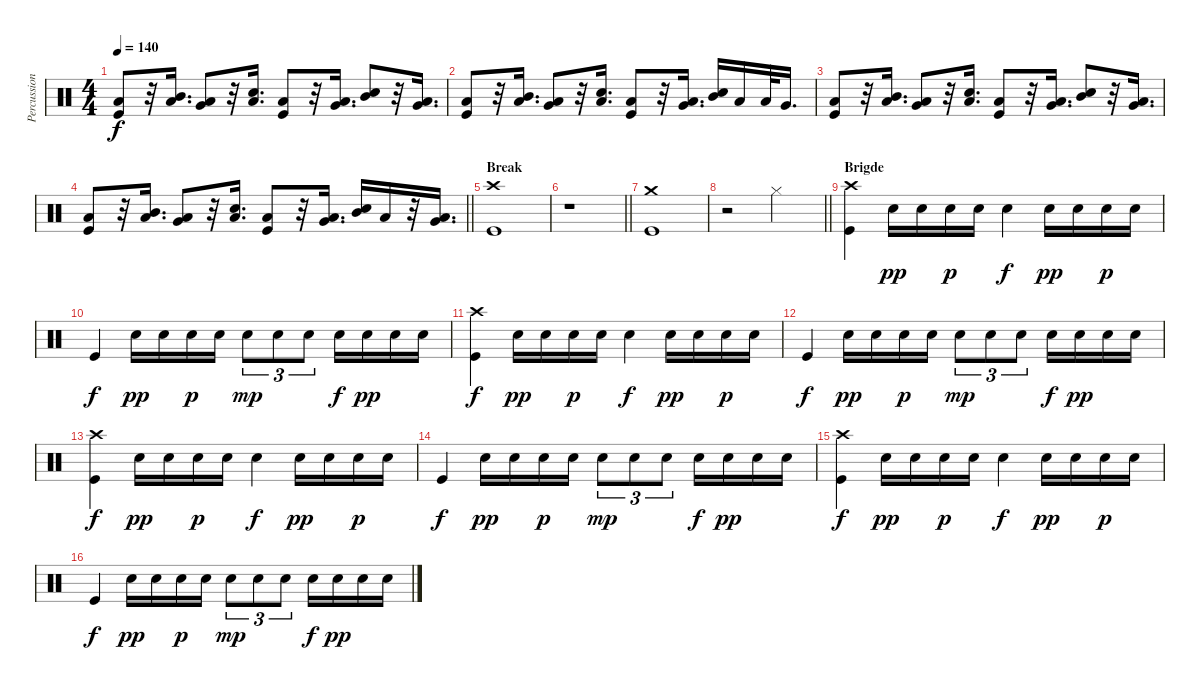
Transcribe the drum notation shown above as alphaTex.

\track ("Percussion" "Percussion") {instrument percussion}
\staff {score}
\articulation defaults
\ts (4 4)
\tempo 140
\clef neutral
\ks c
("Low Tom (hit)" "Kick (hit)").8{dy f} r.32 ("Mid Tom (hit)" "Low Tom (hit)").16{d} ("Low Tom (hit)" "Very Low Tom (hit)").8 r.32 ("Low Floor Tom (hit)" "Electric Snare (hit)").16{d} ("Low Floor Tom (hit)" "Kick (hit)").8 r.32 ("Low Tom (hit)" "Very Low Tom (hit)").16{d} ("Mid Tom (hit)" "Electric Snare (hit)").8 r.32 ("Low Tom (hit)" "Very Low Tom (hit)").16{d} |
("Low Tom (hit)" "Kick (hit)").8 r.32 ("Mid Tom (hit)" "Low Tom (hit)").16{d} ("Low Tom (hit)" "Very Low Tom (hit)").8 r.32 ("Low Floor Tom (hit)" "Electric Snare (hit)").16{d} ("Low Floor Tom (hit)" "Kick (hit)").8 r.32 ("Low Tom (hit)" "Very Low Tom (hit)").16{d} ("Mid Tom (hit)" "Electric Snare (hit)").16 "Low Tom (hit)".16 "Low Tom (hit)".32 "Very Low Tom (hit)".16{d} |
("Low Tom (hit)" "Kick (hit)").8 r.32 ("Mid Tom (hit)" "Low Tom (hit)").16{d} ("Low Tom (hit)" "Very Low Tom (hit)").8 r.32 ("Low Floor Tom (hit)" "Electric Snare (hit)").16{d} ("Low Floor Tom (hit)" "Kick (hit)").8 r.32 ("Low Tom (hit)" "Very Low Tom (hit)").16{d} ("Mid Tom (hit)" "Electric Snare (hit)").8 r.32 ("Low Tom (hit)" "Very Low Tom (hit)").16{d} |
\barLineRight lightlight
("Low Tom (hit)" "Kick (hit)").8 r.32 ("Mid Tom (hit)" "Low Tom (hit)").16{d} ("Low Tom (hit)" "Very Low Tom (hit)").8 r.32 ("Low Floor Tom (hit)" "Electric Snare (hit)").16{d} ("Low Floor Tom (hit)" "Kick (hit)").8 r.32 ("Low Tom (hit)" "Very Low Tom (hit)").16{d} ("Mid Tom (hit)" "Electric Snare (hit)").16 "Low Tom (hit)".16 r.32 ("Low Tom (hit)" "Very Low Tom (hit)").16{d} |
\section ("" "Break")
("Crash high (hit)" "Kick (hit)").1 |
\barLineRight lightlight
r.1 |
("Crash medium (hit)" "Kick (hit)").1 |
\barLineRight lightlight
r.2 "Hi-Hat (closed)".2 |
\section ("" "Brigde")
("Crash high (hit)" "Kick (hit)").4 "Electric Snare (hit)".16{dy pp} "Electric Snare (hit)".16 "Electric Snare (hit)".16{dy p} "Electric Snare (hit)".16 "Electric Snare (hit)".4{dy f} "Electric Snare (hit)".16{dy pp} "Electric Snare (hit)".16 "Electric Snare (hit)".16{dy p} "Electric Snare (hit)".16 |
"Kick (hit)".4{dy f} "Electric Snare (hit)".16{dy pp} "Electric Snare (hit)".16 "Electric Snare (hit)".16{dy p} "Electric Snare (hit)".16 "Electric Snare (hit)".8{tu (3 2) dy mp} "Electric Snare (hit)".8{tu (3 2)} "Electric Snare (hit)".8{tu (3 2)} "Electric Snare (hit)".16{dy f} "Electric Snare (hit)".16{dy pp} "Electric Snare (hit)".16 "Electric Snare (hit)".16 |
("Crash high (hit)" "Kick (hit)").4{dy f} "Electric Snare (hit)".16{dy pp} "Electric Snare (hit)".16 "Electric Snare (hit)".16{dy p} "Electric Snare (hit)".16 "Electric Snare (hit)".4{dy f} "Electric Snare (hit)".16{dy pp} "Electric Snare (hit)".16 "Electric Snare (hit)".16{dy p} "Electric Snare (hit)".16 |
"Kick (hit)".4{dy f} "Electric Snare (hit)".16{dy pp} "Electric Snare (hit)".16 "Electric Snare (hit)".16{dy p} "Electric Snare (hit)".16 "Electric Snare (hit)".8{tu (3 2) dy mp} "Electric Snare (hit)".8{tu (3 2)} "Electric Snare (hit)".8{tu (3 2)} "Electric Snare (hit)".16{dy f} "Electric Snare (hit)".16{dy pp} "Electric Snare (hit)".16 "Electric Snare (hit)".16 |
("Crash high (hit)" "Kick (hit)").4{dy f} "Electric Snare (hit)".16{dy pp} "Electric Snare (hit)".16 "Electric Snare (hit)".16{dy p} "Electric Snare (hit)".16 "Electric Snare (hit)".4{dy f} "Electric Snare (hit)".16{dy pp} "Electric Snare (hit)".16 "Electric Snare (hit)".16{dy p} "Electric Snare (hit)".16 |
"Kick (hit)".4{dy f} "Electric Snare (hit)".16{dy pp} "Electric Snare (hit)".16 "Electric Snare (hit)".16{dy p} "Electric Snare (hit)".16 "Electric Snare (hit)".8{tu (3 2) dy mp} "Electric Snare (hit)".8{tu (3 2)} "Electric Snare (hit)".8{tu (3 2)} "Electric Snare (hit)".16{dy f} "Electric Snare (hit)".16{dy pp} "Electric Snare (hit)".16 "Electric Snare (hit)".16 |
("Crash high (hit)" "Kick (hit)").4{dy f} "Electric Snare (hit)".16{dy pp} "Electric Snare (hit)".16 "Electric Snare (hit)".16{dy p} "Electric Snare (hit)".16 "Electric Snare (hit)".4{dy f} "Electric Snare (hit)".16{dy pp} "Electric Snare (hit)".16 "Electric Snare (hit)".16{dy p} "Electric Snare (hit)".16 |
"Kick (hit)".4{dy f} "Electric Snare (hit)".16{dy pp} "Electric Snare (hit)".16 "Electric Snare (hit)".16{dy p} "Electric Snare (hit)".16 "Electric Snare (hit)".8{tu (3 2) dy mp} "Electric Snare (hit)".8{tu (3 2)} "Electric Snare (hit)".8{tu (3 2)} "Electric Snare (hit)".16{dy f} "Electric Snare (hit)".16{dy pp} "Electric Snare (hit)".16 "Electric Snare (hit)".16
